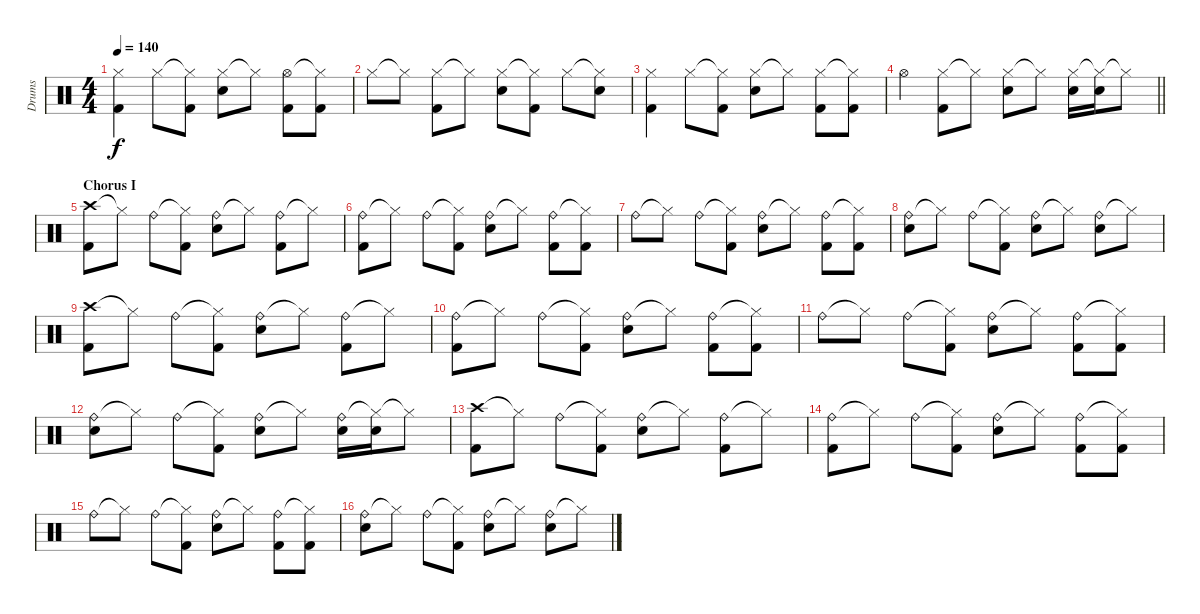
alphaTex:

\track ("Drums" "Drums") {instrument percussion}
\staff {score}
\articulation defaults
\ts (4 4)
\tempo 140
\clef neutral
\ks c
("Hi-Hat (closed)" "Kick (hit) 2").4{dy f} "Hi-Hat (closed)".8 ("Hi-Hat (closed)"{t} "Kick (hit) 2").8 ("Hi-Hat (closed)" "Snare (hit) 2").8 "Hi-Hat (closed)"{t}.8 ("Hi-Hat (open)" "Kick (hit) 2").8 ("Hi-Hat (closed)"{t} "Kick (hit) 2").8 |
"Hi-Hat (closed)".8 "Hi-Hat (closed)"{t}.8 ("Hi-Hat (closed)" "Kick (hit) 2").8 "Hi-Hat (closed)"{t}.8 ("Hi-Hat (closed)" "Snare (hit) 2").8 ("Hi-Hat (closed)"{t} "Kick (hit) 2").8 "Hi-Hat (closed)".8 ("Hi-Hat (closed)"{t} "Snare (hit) 2").8 |
("Hi-Hat (closed)" "Kick (hit) 2").4 "Hi-Hat (closed)".8 ("Hi-Hat (closed)"{t} "Kick (hit) 2").8 ("Hi-Hat (closed)" "Snare (hit) 2").8 "Hi-Hat (closed)"{t}.8 ("Hi-Hat (closed)" "Kick (hit) 2").8 ("Hi-Hat (closed)"{t} "Kick (hit) 2").8 |
\barLineRight lightlight "Hi-Hat (open)".4
("Hi-Hat (closed)" "Kick (hit) 2").8 "Hi-Hat (closed)"{t}.8 ("Hi-Hat (closed)" "Snare (hit) 2").8 "Hi-Hat (closed)"{t}.8 ("Hi-Hat (closed)" "Snare (hit) 2").16 ("Hi-Hat (closed)"{t} "Snare (hit) 2").16 "Hi-Hat (closed)"{t}.8 |
\section ("" "Chorus I")
("Crash high (hit)" "Kick (hit) 2").8 "Hi-Hat (closed)"{t}.8 "Ride (bell)".8 ("Hi-Hat (closed)"{t} "Kick (hit) 2").8 ("Ride (bell)" "Snare (hit) 2").8 "Hi-Hat (closed)"{t}.8 ("Ride (bell)" "Kick (hit) 2").8 "Hi-Hat (closed)"{t}.8 |
("Ride (bell)" "Kick (hit) 2").8 "Hi-Hat (closed)"{t}.8 "Ride (bell)".8 ("Hi-Hat (closed)"{t} "Kick (hit) 2").8 ("Ride (bell)" "Snare (hit) 2").8 "Hi-Hat (closed)"{t}.8 ("Ride (bell)" "Kick (hit) 2").8 ("Hi-Hat (closed)"{t} "Kick (hit) 2").8 |
"Ride (bell)".8 "Hi-Hat (closed)"{t}.8 "Ride (bell)".8 ("Hi-Hat (closed)"{t} "Kick (hit) 2").8 ("Ride (bell)" "Snare (hit) 2").8 "Hi-Hat (closed)"{t}.8 ("Ride (bell)" "Kick (hit) 2").8 ("Hi-Hat (closed)"{t} "Kick (hit) 2").8 |
("Ride (bell)" "Snare (hit) 2").8 "Hi-Hat (closed)"{t}.8 "Ride (bell)".8 ("Hi-Hat (closed)"{t} "Kick (hit) 2").8 ("Ride (bell)" "Snare (hit) 2").8 "Hi-Hat (closed)"{t}.8 ("Ride (bell)" "Snare (hit) 2").8 "Hi-Hat (closed)"{t}.8 |
("Crash high (hit)" "Kick (hit) 2").8 "Hi-Hat (closed)"{t}.8 "Ride (bell)".8 ("Hi-Hat (closed)"{t} "Kick (hit) 2").8 ("Ride (bell)" "Snare (hit) 2").8 "Hi-Hat (closed)"{t}.8 ("Ride (bell)" "Kick (hit) 2").8 "Hi-Hat (closed)"{t}.8 |
("Ride (bell)" "Kick (hit) 2").8 "Hi-Hat (closed)"{t}.8 "Ride (bell)".8 ("Hi-Hat (closed)"{t} "Kick (hit) 2").8 ("Ride (bell)" "Snare (hit) 2").8 "Hi-Hat (closed)"{t}.8 ("Ride (bell)" "Kick (hit) 2").8 ("Hi-Hat (closed)"{t} "Kick (hit) 2").8 |
"Ride (bell)".8 "Hi-Hat (closed)"{t}.8 "Ride (bell)".8 ("Hi-Hat (closed)"{t} "Kick (hit) 2").8 ("Ride (bell)" "Snare (hit) 2").8 "Hi-Hat (closed)"{t}.8 ("Ride (bell)" "Kick (hit) 2").8 ("Hi-Hat (closed)"{t} "Kick (hit) 2").8 |
("Ride (bell)" "Snare (hit) 2").8 "Hi-Hat (closed)"{t}.8 "Ride (bell)".8 ("Hi-Hat (closed)"{t} "Kick (hit) 2").8 ("Ride (bell)" "Snare (hit) 2").8 "Hi-Hat (closed)"{t}.8 ("Ride (bell)" "Snare (hit) 2").16 ("Hi-Hat (closed)"{t} "Snare (hit) 2").16 "Hi-Hat (closed)"{t}.8 |
("Crash high (hit)" "Kick (hit) 2").8 "Hi-Hat (closed)"{t}.8 "Ride (bell)".8 ("Hi-Hat (closed)"{t} "Kick (hit) 2").8 ("Ride (bell)" "Snare (hit) 2").8 "Hi-Hat (closed)"{t}.8 ("Ride (bell)" "Kick (hit) 2").8 "Hi-Hat (closed)"{t}.8 |
("Ride (bell)" "Kick (hit) 2").8 "Hi-Hat (closed)"{t}.8 "Ride (bell)".8 ("Hi-Hat (closed)"{t} "Kick (hit) 2").8 ("Ride (bell)" "Snare (hit) 2").8 "Hi-Hat (closed)"{t}.8 ("Ride (bell)" "Kick (hit) 2").8 ("Hi-Hat (closed)"{t} "Kick (hit) 2").8 |
"Ride (bell)".8 "Hi-Hat (closed)"{t}.8 "Ride (bell)".8 ("Hi-Hat (closed)"{t} "Kick (hit) 2").8 ("Ride (bell)" "Snare (hit) 2").8 "Hi-Hat (closed)"{t}.8 ("Ride (bell)" "Kick (hit) 2").8 ("Hi-Hat (closed)"{t} "Kick (hit) 2").8 |
("Ride (bell)" "Snare (hit) 2").8 "Hi-Hat (closed)"{t}.8 "Ride (bell)".8 ("Hi-Hat (closed)"{t} "Kick (hit) 2").8 ("Ride (bell)" "Snare (hit) 2").8 "Hi-Hat (closed)"{t}.8 ("Ride (bell)" "Snare (hit) 2").8 "Hi-Hat (closed)"{t}.8
